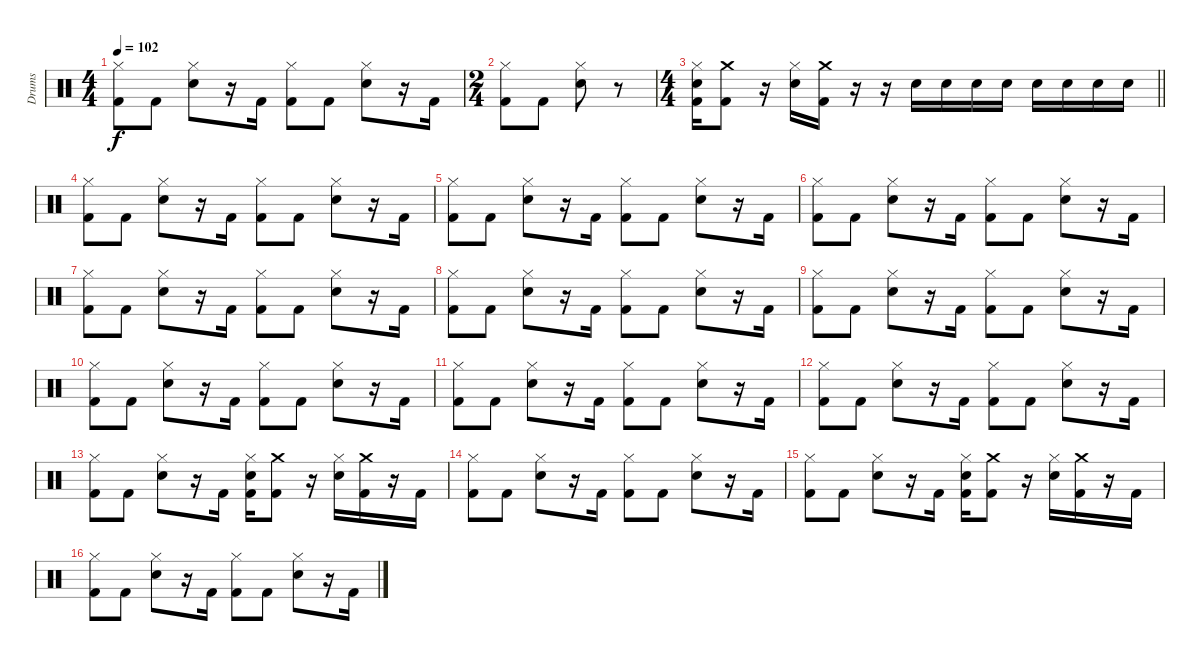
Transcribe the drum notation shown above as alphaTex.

\track ("Drums" "Drums") {instrument percussion}
\staff {score}
\articulation defaults
\ts (4 4)
\tempo 102
\clef neutral
\ks c
("Hi-Hat (closed)" "Kick (hit) 2").8{dy f} "Kick (hit) 2".8 ("Hi-Hat (closed)" "Snare (hit) 2").8 r.16 "Kick (hit) 2".16 ("Hi-Hat (closed)" "Kick (hit) 2").8 "Kick (hit) 2".8 ("Hi-Hat (closed)" "Snare (hit) 2").8 r.16 "Kick (hit) 2".16 |
\ts (2 4)
("Hi-Hat (closed)" "Kick (hit) 2").8 "Kick (hit) 2".8 ("Hi-Hat (closed)" "Snare (hit) 2").8 r.8 |
\ts (4 4)
\barLineRight lightlight
("Hi-Hat (closed)" "Snare (hit) 2" "Kick (hit) 2").16 ("Crash medium (hit)" "Kick (hit) 2").8 r.16 ("Hi-Hat (closed)" "Snare (hit) 2").16 ("Crash medium (hit)" "Kick (hit) 2").16 r.16 r.16 "Snare (hit) 2".16 "Snare (hit) 2".16 "Snare (hit) 2".16 "Snare (hit) 2".16 "Snare (hit) 2".16 "Snare (hit) 2".16 "Snare (hit) 2".16 "Snare (hit) 2".16 |
("Hi-Hat (closed)" "Kick (hit) 2").8 "Kick (hit) 2".8 ("Hi-Hat (closed)" "Snare (hit) 2").8 r.16 "Kick (hit) 2".16 ("Hi-Hat (closed)" "Kick (hit) 2").8 "Kick (hit) 2".8 ("Hi-Hat (closed)" "Snare (hit) 2").8 r.16 "Kick (hit) 2".16 |
("Hi-Hat (closed)" "Kick (hit) 2").8 "Kick (hit) 2".8 ("Hi-Hat (closed)" "Snare (hit) 2").8 r.16 "Kick (hit) 2".16 ("Hi-Hat (closed)" "Kick (hit) 2").8 "Kick (hit) 2".8 ("Hi-Hat (closed)" "Snare (hit) 2").8 r.16 "Kick (hit) 2".16 |
("Hi-Hat (closed)" "Kick (hit) 2").8 "Kick (hit) 2".8 ("Hi-Hat (closed)" "Snare (hit) 2").8 r.16 "Kick (hit) 2".16 ("Hi-Hat (closed)" "Kick (hit) 2").8 "Kick (hit) 2".8 ("Hi-Hat (closed)" "Snare (hit) 2").8 r.16 "Kick (hit) 2".16 |
("Hi-Hat (closed)" "Kick (hit) 2").8 "Kick (hit) 2".8 ("Hi-Hat (closed)" "Snare (hit) 2").8 r.16 "Kick (hit) 2".16 ("Hi-Hat (closed)" "Kick (hit) 2").8 "Kick (hit) 2".8 ("Hi-Hat (closed)" "Snare (hit) 2").8 r.16 "Kick (hit) 2".16 |
("Hi-Hat (closed)" "Kick (hit) 2").8 "Kick (hit) 2".8 ("Hi-Hat (closed)" "Snare (hit) 2").8 r.16 "Kick (hit) 2".16 ("Hi-Hat (closed)" "Kick (hit) 2").8 "Kick (hit) 2".8 ("Hi-Hat (closed)" "Snare (hit) 2").8 r.16 "Kick (hit) 2".16 |
("Hi-Hat (closed)" "Kick (hit) 2").8 "Kick (hit) 2".8 ("Hi-Hat (closed)" "Snare (hit) 2").8 r.16 "Kick (hit) 2".16 ("Hi-Hat (closed)" "Kick (hit) 2").8 "Kick (hit) 2".8 ("Hi-Hat (closed)" "Snare (hit) 2").8 r.16 "Kick (hit) 2".16 |
("Hi-Hat (closed)" "Kick (hit) 2").8 "Kick (hit) 2".8 ("Hi-Hat (closed)" "Snare (hit) 2").8 r.16 "Kick (hit) 2".16 ("Hi-Hat (closed)" "Kick (hit) 2").8 "Kick (hit) 2".8 ("Hi-Hat (closed)" "Snare (hit) 2").8 r.16 "Kick (hit) 2".16 |
("Hi-Hat (closed)" "Kick (hit) 2").8 "Kick (hit) 2".8 ("Hi-Hat (closed)" "Snare (hit) 2").8 r.16 "Kick (hit) 2".16 ("Hi-Hat (closed)" "Kick (hit) 2").8 "Kick (hit) 2".8 ("Hi-Hat (closed)" "Snare (hit) 2").8 r.16 "Kick (hit) 2".16 |
("Hi-Hat (closed)" "Kick (hit) 2").8 "Kick (hit) 2".8 ("Hi-Hat (closed)" "Snare (hit) 2").8 r.16 "Kick (hit) 2".16 ("Hi-Hat (closed)" "Kick (hit) 2").8 "Kick (hit) 2".8 ("Hi-Hat (closed)" "Snare (hit) 2").8 r.16 "Kick (hit) 2".16 |
("Hi-Hat (closed)" "Kick (hit) 2").8 "Kick (hit) 2".8 ("Hi-Hat (closed)" "Snare (hit) 2").8 r.16 "Kick (hit) 2".16 ("Hi-Hat (closed)" "Snare (hit) 2" "Kick (hit) 2").16 ("Crash medium (hit)" "Kick (hit) 2").8 r.16 ("Hi-Hat (closed)" "Snare (hit) 2").16 ("Crash medium (hit)" "Kick (hit) 2").16 r.16 "Kick (hit) 2".16 |
("Hi-Hat (closed)" "Kick (hit) 2").8 "Kick (hit) 2".8 ("Hi-Hat (closed)" "Snare (hit) 2").8 r.16 "Kick (hit) 2".16 ("Hi-Hat (closed)" "Kick (hit) 2").8 "Kick (hit) 2".8 ("Hi-Hat (closed)" "Snare (hit) 2").8 r.16 "Kick (hit) 2".16 |
("Hi-Hat (closed)" "Kick (hit) 2").8 "Kick (hit) 2".8 ("Hi-Hat (closed)" "Snare (hit) 2").8 r.16 "Kick (hit) 2".16 ("Hi-Hat (closed)" "Snare (hit) 2" "Kick (hit) 2").16 ("Crash medium (hit)" "Kick (hit) 2").8 r.16 ("Hi-Hat (closed)" "Snare (hit) 2").16 ("Crash medium (hit)" "Kick (hit) 2").16 r.16 "Kick (hit) 2".16 |
("Hi-Hat (closed)" "Kick (hit) 2").8 "Kick (hit) 2".8 ("Hi-Hat (closed)" "Snare (hit) 2").8 r.16 "Kick (hit) 2".16 ("Hi-Hat (closed)" "Kick (hit) 2").8 "Kick (hit) 2".8 ("Hi-Hat (closed)" "Snare (hit) 2").8 r.16 "Kick (hit) 2".16
